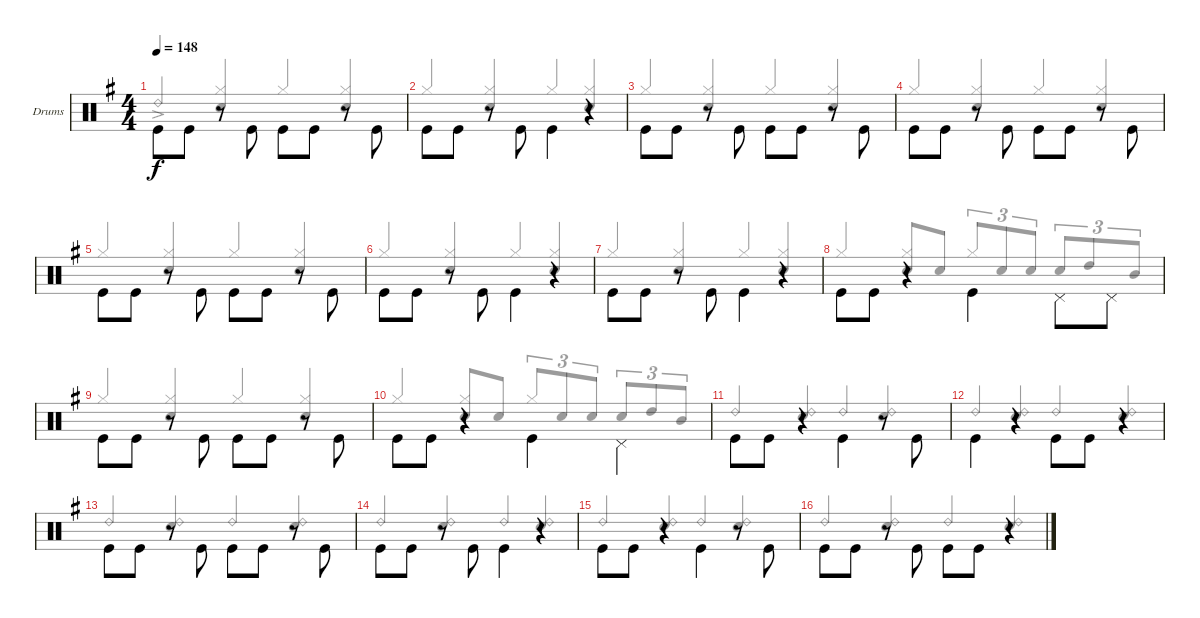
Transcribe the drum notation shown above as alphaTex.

\bracketExtendMode groupsimilarinstruments
\firstSystemTrackNameOrientation horizontal
\otherSystemsTrackNameOrientation horizontal
\track ("Drumkit" "Drums") {instrument percussion}
\staff {score}
\articulation defaults
\voice
\ts (4 4)
\tempo 148
\clef neutral
\scale
1.04288
\ks g "Kick (hit)".8{dy f beam invert} "Kick (hit)".8
r.8{beam invert} "Kick (hit)".8{beam invert} "Kick (hit)".8{beam invert} "Kick (hit)".8 r.8{beam invert} "Kick (hit)".8{beam invert} |
\scale
0.957125 "Kick (hit)".8{beam invert} "Kick (hit)".8 r.8{beam invert} "Kick (hit)".8{beam invert} "Kick (hit)".4{beam invert} r.4 |
\scale
1.04288 "Kick (hit)".8{beam invert} "Kick (hit)".8 r.8{beam invert} "Kick (hit)".8{beam invert} "Kick (hit)".8{beam invert} "Kick (hit)".8 r.8{beam invert} "Kick (hit)".8{beam invert} |
\scale
0.957125 "Kick (hit)".8{beam invert} "Kick (hit)".8 r.8{beam invert} "Kick (hit)".8{beam invert} "Kick (hit)".8{beam invert} "Kick (hit)".8 r.8{beam invert} "Kick (hit)".8{beam invert} |
\scale
1.04288 "Kick (hit)".8{beam invert} "Kick (hit)".8 r.8{beam invert} "Kick (hit)".8{beam invert} "Kick (hit)".8{beam invert} "Kick (hit)".8 r.8{beam invert} "Kick (hit)".8{beam invert} |
\scale
0.957125 "Kick (hit)".8{beam invert} "Kick (hit)".8 r.8{beam invert} "Kick (hit)".8{beam invert} "Kick (hit)".4{beam invert} r.4 |
\scale
1.04288 "Kick (hit)".8{beam invert} "Kick (hit)".8 r.8{beam invert} "Kick (hit)".8{beam invert} "Kick (hit)".4{beam invert} r.4 |
\scale
0.957125 "Kick (hit)".8{beam invert} "Kick (hit)".8 r.4{beam invert} "Kick (hit)".4{beam invert} "Pedal Hi-Hat (hit)".8{beam invert} "Pedal Hi-Hat (hit)".8 |
\scale
1.04288 "Kick (hit)".8{beam invert} "Kick (hit)".8 r.8{beam invert} "Kick (hit)".8{beam invert} "Kick (hit)".8{beam invert} "Kick (hit)".8 r.8{beam invert} "Kick (hit)".8{beam invert} |
\scale
0.957125 "Kick (hit)".8{beam invert} "Kick (hit)".8 r.4{beam invert} "Kick (hit)".4{beam invert} "Pedal Hi-Hat (hit)".4{beam invert} |
\scale
1.04288 "Kick (hit)".8{beam invert} "Kick (hit)".8 r.4{beam invert} "Kick (hit)".4{beam invert} r.8{beam invert} "Kick (hit)".8{beam invert} |
\scale
0.957125 "Kick (hit)".4{beam invert} r.4{beam invert} "Kick (hit)".8{beam invert} "Kick (hit)".8 r.4 |
\scale
1.04288 "Kick (hit)".8{beam invert} "Kick (hit)".8 r.8{beam invert} "Kick (hit)".8{beam invert} "Kick (hit)".8{beam invert} "Kick (hit)".8 r.8{beam invert} "Kick (hit)".8{beam invert} |
\scale
0.957125 "Kick (hit)".8{beam invert} "Kick (hit)".8 r.8{beam invert} "Kick (hit)".8{beam invert} "Kick (hit)".4{beam invert} r.4 |
\scale
1.04288 "Kick (hit)".8{beam invert} "Kick (hit)".8 r.4{beam invert} "Kick (hit)".4{beam invert} r.8{beam invert} "Kick (hit)".8{beam invert} |
\scale
0.957125 "Kick (hit)".8{beam invert} "Kick (hit)".8 r.8{beam invert} "Kick (hit)".8{beam invert} "Kick (hit)".8{beam invert} "Kick (hit)".8 r.4{beam invert}
\voice
\clef neutral
\ottava regular
\simile none
\scale
1.04288
\ks g "Ride (bell) 2"{ac}.4{dy f beam invert}
("Hi-Hat (closed)" "Snare (hit) 2").4{beam invert} "Hi-Hat (closed)".4{beam invert} ("Hi-Hat (closed)" "Snare (hit) 2").4{beam invert} |
\scale
0.957125 "Hi-Hat (closed)".4{beam invert} ("Hi-Hat (closed)" "Snare (hit) 2").4{beam invert} "Hi-Hat (closed)".4{beam invert} ("Hi-Hat (closed)" "Snare (hit) 2").4{beam invert} |
\scale
1.04288 "Hi-Hat (closed)".4{beam invert} ("Hi-Hat (closed)" "Snare (hit) 2").4{beam invert} "Hi-Hat (closed)".4{beam invert} ("Hi-Hat (closed)" "Snare (hit) 2").4{beam invert} |
\scale
0.957125 "Hi-Hat (closed)".4{beam invert} ("Hi-Hat (closed)" "Snare (hit) 2").4{beam invert} "Hi-Hat (closed)".4{beam invert} ("Hi-Hat (closed)" "Snare (hit) 2").4{beam invert} |
\scale
1.04288 "Hi-Hat (closed)".4{beam invert} ("Hi-Hat (closed)" "Snare (hit) 2").4{beam invert} "Hi-Hat (closed)".4{beam invert} ("Hi-Hat (closed)" "Snare (hit) 2").4{beam invert} |
\scale
0.957125 "Hi-Hat (closed)".4{beam invert} ("Hi-Hat (closed)" "Snare (hit) 2").4{beam invert} "Hi-Hat (closed)".4{beam invert} ("Hi-Hat (closed)" "Snare (hit) 2").4{beam invert} |
\scale
1.04288 "Hi-Hat (closed)".4{beam invert} ("Hi-Hat (closed)" "Snare (hit) 2").4{beam invert} "Hi-Hat (closed)".4{beam invert} ("Hi-Hat (closed)" "Snare (hit) 2").4{beam invert} |
\scale
0.957125 "Hi-Hat (closed)".4{beam invert} ("Hi-Hat (closed)" "Snare (hit) 2").8{beam invert} "Snare (hit) 2".8 "Hi-Hat (closed)".8{tu (3 2) beam invert} "Snare (hit) 2".8{tu (3 2)} "Snare (hit) 2".8{tu (3 2)} "Snare (hit) 2".8{tu (3 2) beam invert} "High Tom (hit)".8{tu (3 2)} "Mid Tom (hit)".8{tu (3 2)} |
\scale
1.04288 "Hi-Hat (closed)".4{beam invert} ("Hi-Hat (closed)" "Snare (hit) 2").4{beam invert} "Hi-Hat (closed)".4{beam invert} ("Hi-Hat (closed)" "Snare (hit) 2").4{beam invert} |
\scale
0.957125 "Hi-Hat (closed)".4{beam invert} ("Hi-Hat (closed)" "Snare (hit) 2").8{beam invert} "Snare (hit) 2".8 "Hi-Hat (closed)".8{tu (3 2) beam invert} "Snare (hit) 2".8{tu (3 2)} "Snare (hit) 2".8{tu (3 2)} "Snare (hit) 2".8{tu (3 2) beam invert} "High Tom (hit)".8{tu (3 2)} "Mid Tom (hit)".8{tu (3 2)} |
\scale
1.04288 "Ride (bell) 2".4{beam invert} ("Snare (hit) 2" "Ride (bell) 2").4{beam invert} "Ride (bell) 2".4{beam invert} ("Snare (hit) 2" "Ride (bell) 2").4{beam invert} |
\scale
0.957125 "Ride (bell) 2".4{beam invert} ("Snare (hit) 2" "Ride (bell) 2").4{beam invert} "Ride (bell) 2".4{beam invert} ("Snare (hit) 2" "Ride (bell) 2").4{beam invert} |
\scale
1.04288 "Ride (bell) 2".4{beam invert} ("Snare (hit) 2" "Ride (bell) 2").4{beam invert} "Ride (bell) 2".4{beam invert} ("Snare (hit) 2" "Ride (bell) 2").4{beam invert} |
\scale
0.957125 "Ride (bell) 2".4{beam invert} ("Snare (hit) 2" "Ride (bell) 2").4{beam invert} "Ride (bell) 2".4{beam invert} ("Snare (hit) 2" "Ride (bell) 2").4{beam invert} |
\scale
1.04288 "Ride (bell) 2".4{beam invert} ("Snare (hit) 2" "Ride (bell) 2").4{beam invert} "Ride (bell) 2".4{beam invert} ("Snare (hit) 2" "Ride (bell) 2").4{beam invert} |
\scale
0.957125 "Ride (bell) 2".4{beam invert} ("Snare (hit) 2" "Ride (bell) 2").4{beam invert} "Ride (bell) 2".4{beam invert} ("Snare (hit) 2" "Ride (bell) 2").4{beam invert}
